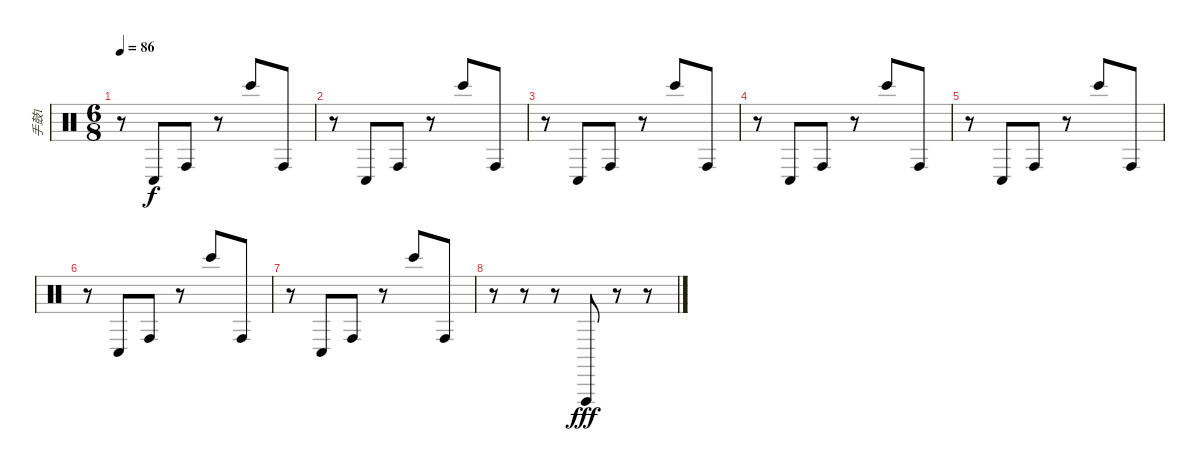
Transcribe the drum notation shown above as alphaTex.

\track ("手鼓1" "手鼓1") {instrument percussion}
\staff {score}
\articulation defaults
\ts (6 8)
\tempo 86
\clef neutral
\ks c
r.8{dy f} "Conga low (hit)".8 "Conga high (hit)".8 r.8 "Bongo High (hit)".8 "Conga high (hit)".8 |
r.8 "Conga low (hit)".8 "Conga high (hit)".8 r.8 "Bongo High (hit)".8 "Conga high (hit)".8 |
r.8 "Conga low (hit)".8 "Conga high (hit)".8 r.8 "Bongo High (hit)".8 "Conga high (hit)".8 |
r.8 "Conga low (hit)".8 "Conga high (hit)".8 r.8 "Bongo High (hit)".8 "Conga high (hit)".8 |
r.8 "Conga low (hit)".8 "Conga high (hit)".8 r.8 "Bongo High (hit)".8 "Conga high (hit)".8 |
r.8 "Conga low (hit)".8 "Conga high (hit)".8 r.8 "Bongo High (hit)".8 "Conga high (hit)".8 |
r.8 "Conga low (hit)".8 "Conga high (hit)".8 r.8 "Bongo High (hit)".8 "Conga high (hit)".8 |
r.8 r.8 r.8 "Vibraslap (hit)".8{dy fff} r.8 r.8
